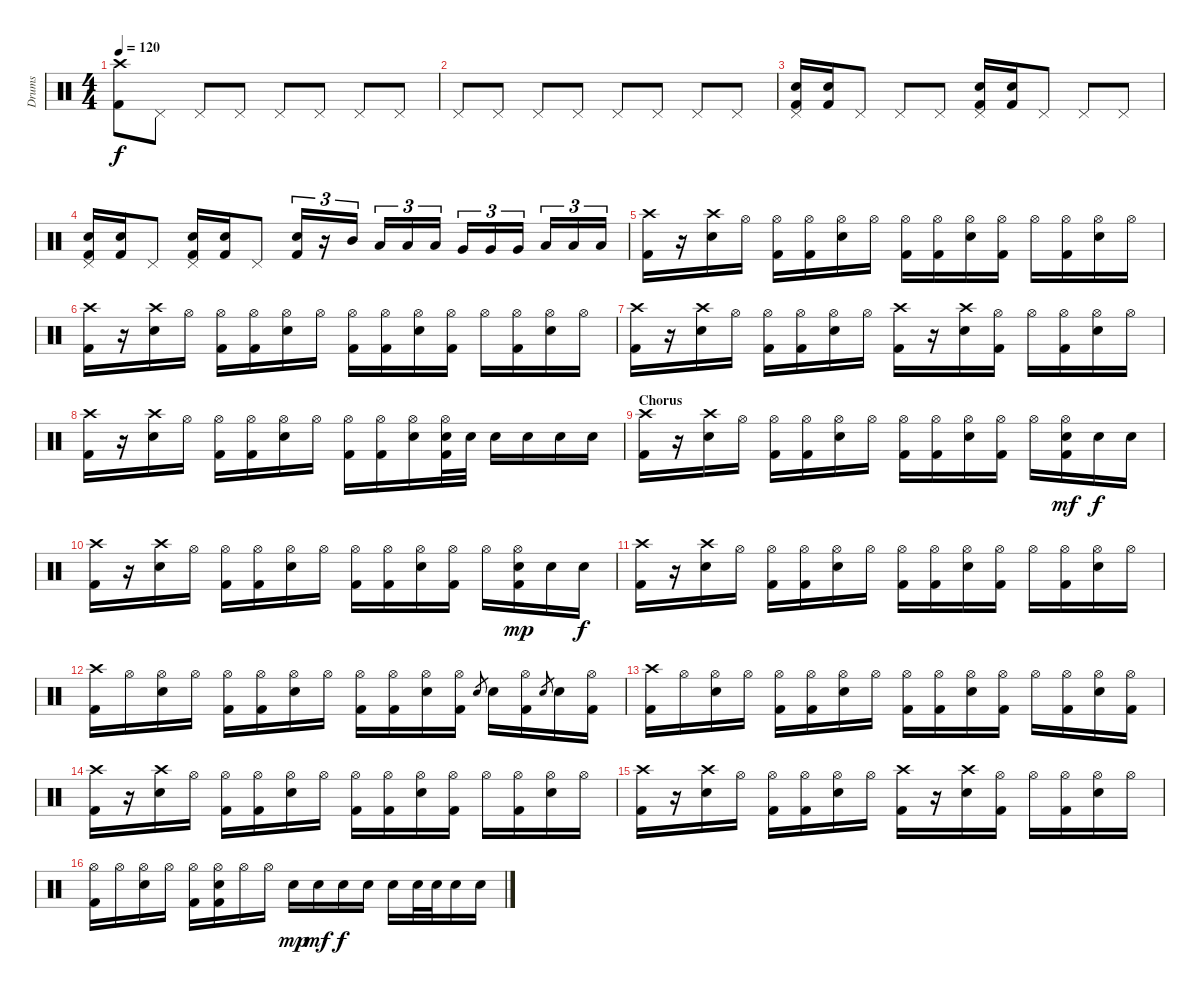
\track ("Drums" "Drums") {instrument percussion}
\staff {score}
\articulation defaults
\ts (4 4)
\tempo 120
\clef neutral
\ks c
("Crash high (hit)" "Kick (hit) 2").8{dy f} "Pedal Hi-Hat (hit)".8 "Pedal Hi-Hat (hit)".8 "Pedal Hi-Hat (hit)".8 "Pedal Hi-Hat (hit)".8 "Pedal Hi-Hat (hit)".8 "Pedal Hi-Hat (hit)".8 "Pedal Hi-Hat (hit)".8 |
"Pedal Hi-Hat (hit)".8 "Pedal Hi-Hat (hit)".8 "Pedal Hi-Hat (hit)".8 "Pedal Hi-Hat (hit)".8 "Pedal Hi-Hat (hit)".8 "Pedal Hi-Hat (hit)".8 "Pedal Hi-Hat (hit)".8 "Pedal Hi-Hat (hit)".8 |
("Pedal Hi-Hat (hit)" "Electric Snare (hit)" "Kick (hit) 2").16 ("Electric Snare (hit)" "Kick (hit) 2").16 "Pedal Hi-Hat (hit)".8 "Pedal Hi-Hat (hit)".8 "Pedal Hi-Hat (hit)".8 ("Pedal Hi-Hat (hit)" "Electric Snare (hit)" "Kick (hit) 2").16 ("Electric Snare (hit)" "Kick (hit) 2").16 "Pedal Hi-Hat (hit)".8 "Pedal Hi-Hat (hit)".8 "Pedal Hi-Hat (hit)".8 |
("Pedal Hi-Hat (hit)" "Electric Snare (hit)" "Kick (hit) 2").16 ("Electric Snare (hit)" "Kick (hit) 2").16 "Pedal Hi-Hat (hit)".8 ("Pedal Hi-Hat (hit)" "Electric Snare (hit)" "Kick (hit) 2").16 ("Electric Snare (hit)" "Kick (hit) 2").16 "Pedal Hi-Hat (hit)".8 ("Electric Snare (hit)" "Kick (hit) 2").16{tu (3 2)} r.16{tu (3 2)} "Mid Tom (hit)".16{tu (3 2)} "Low Tom (hit)".16{tu (3 2)} "Low Tom (hit)".16{tu (3 2)} "Low Tom (hit)".16{tu (3 2)} "Very Low Tom (hit)".16{tu (3 2)} "Very Low Tom (hit)".16{tu (3 2)} "Very Low Tom (hit)".16{tu (3 2)} "Low Floor Tom (hit)".16{tu (3 2)} "Low Floor Tom (hit)".16{tu (3 2)} "Low Floor Tom (hit)".16{tu (3 2)} |
("Crash high (hit)" "Kick (hit) 2").16 r.16 ("Crash high (hit)" "Electric Snare (hit)").16 "Hi-Hat (open)".16 ("Hi-Hat (open)" "Kick (hit) 2").16 ("Hi-Hat (open)" "Kick (hit) 2").16 ("Hi-Hat (open)" "Electric Snare (hit)").16 "Hi-Hat (open)".16 ("Hi-Hat (open)" "Kick (hit) 2").16 ("Hi-Hat (open)" "Kick (hit) 2").16 ("Hi-Hat (open)" "Electric Snare (hit)").16 ("Hi-Hat (open)" "Kick (hit) 2").16 "Hi-Hat (open)".16 ("Hi-Hat (open)" "Kick (hit) 2").16 ("Hi-Hat (open)" "Electric Snare (hit)").16 "Hi-Hat (open)".16 |
("Crash high (hit)" "Kick (hit) 2").16 r.16 ("Crash high (hit)" "Electric Snare (hit)").16 "Hi-Hat (open)".16 ("Hi-Hat (open)" "Kick (hit) 2").16 ("Hi-Hat (open)" "Kick (hit) 2").16 ("Hi-Hat (open)" "Electric Snare (hit)").16 "Hi-Hat (open)".16 ("Hi-Hat (open)" "Kick (hit) 2").16 ("Hi-Hat (open)" "Kick (hit) 2").16 ("Hi-Hat (open)" "Electric Snare (hit)").16 ("Hi-Hat (open)" "Kick (hit) 2").16 "Hi-Hat (open)".16 ("Hi-Hat (open)" "Kick (hit) 2").16 ("Hi-Hat (open)" "Electric Snare (hit)").16 "Hi-Hat (open)".16 |
("Crash high (hit)" "Kick (hit) 2").16 r.16 ("Crash high (hit)" "Electric Snare (hit)").16 "Hi-Hat (open)".16 ("Hi-Hat (open)" "Kick (hit) 2").16 ("Hi-Hat (open)" "Kick (hit) 2").16 ("Hi-Hat (open)" "Electric Snare (hit)").16 "Hi-Hat (open)".16 ("Crash high (hit)" "Kick (hit) 2").16 r.16 ("Crash high (hit)" "Electric Snare (hit)").16 ("Hi-Hat (open)" "Kick (hit) 2").16 "Hi-Hat (open)".16 ("Hi-Hat (open)" "Kick (hit) 2").16 ("Hi-Hat (open)" "Electric Snare (hit)").16 "Hi-Hat (open)".16 |
("Crash high (hit)" "Kick (hit) 2").16 r.16 ("Crash high (hit)" "Electric Snare (hit)").16 "Hi-Hat (open)".16 ("Hi-Hat (open)" "Kick (hit) 2").16 ("Hi-Hat (open)" "Kick (hit) 2").16 ("Hi-Hat (open)" "Electric Snare (hit)").16 "Hi-Hat (open)".16 ("Hi-Hat (open)" "Kick (hit) 2").16 ("Hi-Hat (open)" "Kick (hit) 2").16 ("Hi-Hat (open)" "Electric Snare (hit)").16 ("Hi-Hat (open)" "Electric Snare (hit)" "Kick (hit) 2").32 "Electric Snare (hit)".32 "Electric Snare (hit)".16 "Electric Snare (hit)".16 "Electric Snare (hit)".16 "Electric Snare (hit)".16 |
\section ("" "Chorus")
("Crash high (hit)" "Kick (hit) 2").16 r.16 ("Crash high (hit)" "Electric Snare (hit)").16 "Hi-Hat (open)".16 ("Hi-Hat (open)" "Kick (hit) 2").16 ("Hi-Hat (open)" "Kick (hit) 2").16 ("Hi-Hat (open)" "Electric Snare (hit)").16 "Hi-Hat (open)".16 ("Hi-Hat (open)" "Kick (hit) 2").16 ("Hi-Hat (open)" "Kick (hit) 2").16 ("Hi-Hat (open)" "Electric Snare (hit)").16 ("Hi-Hat (open)" "Kick (hit) 2").16 "Hi-Hat (open)".16 ("Hi-Hat (open)" "Electric Snare (hit)" "Kick (hit) 2").16{dy mf} "Electric Snare (hit)".16{dy f} "Electric Snare (hit)".16 |
("Crash high (hit)" "Kick (hit) 2").16 r.16 ("Crash high (hit)" "Electric Snare (hit)").16 "Hi-Hat (open)".16 ("Hi-Hat (open)" "Kick (hit) 2").16 ("Hi-Hat (open)" "Kick (hit) 2").16 ("Hi-Hat (open)" "Electric Snare (hit)").16 "Hi-Hat (open)".16 ("Hi-Hat (open)" "Kick (hit) 2").16 ("Hi-Hat (open)" "Kick (hit) 2").16 ("Hi-Hat (open)" "Electric Snare (hit)").16 ("Hi-Hat (open)" "Kick (hit) 2").16 "Hi-Hat (open)".16 ("Hi-Hat (open)" "Electric Snare (hit)" "Kick (hit) 2").16{dy mp} "Electric Snare (hit)".16 "Electric Snare (hit)".16{dy f} |
("Crash high (hit)" "Kick (hit) 2").16 r.16 ("Crash high (hit)" "Electric Snare (hit)").16 "Hi-Hat (open)".16 ("Hi-Hat (open)" "Kick (hit) 2").16 ("Hi-Hat (open)" "Kick (hit) 2").16 ("Hi-Hat (open)" "Electric Snare (hit)").16 "Hi-Hat (open)".16 ("Hi-Hat (open)" "Kick (hit) 2").16 ("Hi-Hat (open)" "Kick (hit) 2").16 ("Hi-Hat (open)" "Electric Snare (hit)").16 ("Hi-Hat (open)" "Kick (hit) 2").16 "Hi-Hat (open)".16 ("Hi-Hat (open)" "Kick (hit) 2").16 ("Hi-Hat (open)" "Electric Snare (hit)").16 "Hi-Hat (open)".16 |
("Crash high (hit)" "Kick (hit) 2").16 "Hi-Hat (open)".16 ("Hi-Hat (open)" "Electric Snare (hit)").16 "Hi-Hat (open)".16 ("Hi-Hat (open)" "Kick (hit) 2").16 ("Hi-Hat (open)" "Kick (hit) 2").16 ("Hi-Hat (open)" "Electric Snare (hit)").16 "Hi-Hat (open)".16 ("Hi-Hat (open)" "Kick (hit) 2").16 ("Hi-Hat (open)" "Kick (hit) 2").16 ("Hi-Hat (open)" "Electric Snare (hit)").16 ("Hi-Hat (open)" "Kick (hit) 2").16 "Electric Snare (hit)".8{gr} "Electric Snare (hit)".16 ("Hi-Hat (open)" "Kick (hit) 2").16 "Electric Snare (hit)".8{gr} "Electric Snare (hit)".16 ("Hi-Hat (open)" "Kick (hit) 2").16 |
("Crash high (hit)" "Kick (hit) 2").16 "Hi-Hat (open)".16 ("Hi-Hat (open)" "Electric Snare (hit)").16 "Hi-Hat (open)".16 ("Hi-Hat (open)" "Kick (hit) 2").16 ("Hi-Hat (open)" "Kick (hit) 2").16 ("Hi-Hat (open)" "Electric Snare (hit)").16 "Hi-Hat (open)".16 ("Hi-Hat (open)" "Kick (hit) 2").16 ("Hi-Hat (open)" "Kick (hit) 2").16 ("Hi-Hat (open)" "Electric Snare (hit)").16 ("Hi-Hat (open)" "Kick (hit) 2").16 "Hi-Hat (open)".16 ("Hi-Hat (open)" "Kick (hit) 2").16 ("Hi-Hat (open)" "Electric Snare (hit)").16 ("Hi-Hat (open)" "Kick (hit) 2").16 |
("Crash high (hit)" "Kick (hit) 2").16 r.16 ("Crash high (hit)" "Electric Snare (hit)").16 "Hi-Hat (open)".16 ("Hi-Hat (open)" "Kick (hit) 2").16 ("Hi-Hat (open)" "Kick (hit) 2").16 ("Hi-Hat (open)" "Electric Snare (hit)").16 "Hi-Hat (open)".16 ("Hi-Hat (open)" "Kick (hit) 2").16 ("Hi-Hat (open)" "Kick (hit) 2").16 ("Hi-Hat (open)" "Electric Snare (hit)").16 ("Hi-Hat (open)" "Kick (hit) 2").16 "Hi-Hat (open)".16 ("Hi-Hat (open)" "Kick (hit) 2").16 ("Hi-Hat (open)" "Electric Snare (hit)").16 "Hi-Hat (open)".16 |
("Crash high (hit)" "Kick (hit) 2").16 r.16 ("Crash high (hit)" "Electric Snare (hit)").16 "Hi-Hat (open)".16 ("Hi-Hat (open)" "Kick (hit) 2").16 ("Hi-Hat (open)" "Kick (hit) 2").16 ("Hi-Hat (open)" "Electric Snare (hit)").16 "Hi-Hat (open)".16 ("Crash high (hit)" "Kick (hit) 2").16 r.16 ("Crash high (hit)" "Electric Snare (hit)").16 ("Hi-Hat (open)" "Kick (hit) 2").16 "Hi-Hat (open)".16 ("Hi-Hat (open)" "Kick (hit) 2").16 ("Hi-Hat (open)" "Electric Snare (hit)").16 "Hi-Hat (open)".16 |
("Hi-Hat (open)" "Kick (hit) 2").16 "Hi-Hat (open)".16 ("Hi-Hat (open)" "Electric Snare (hit)").16 "Hi-Hat (open)".16 ("Hi-Hat (open)" "Kick (hit) 2").16 ("Hi-Hat (open)" "Electric Snare (hit)" "Kick (hit) 2").16 "Hi-Hat (open)".16 "Hi-Hat (open)".16 "Electric Snare (hit)".16{dy mp} "Electric Snare (hit)".16{dy mf} "Electric Snare (hit)".16{dy f} "Electric Snare (hit)".16 "Electric Snare (hit)".16 "Electric Snare (hit)".32 "Electric Snare (hit)".32 "Electric Snare (hit)".16 "Electric Snare (hit)".16
